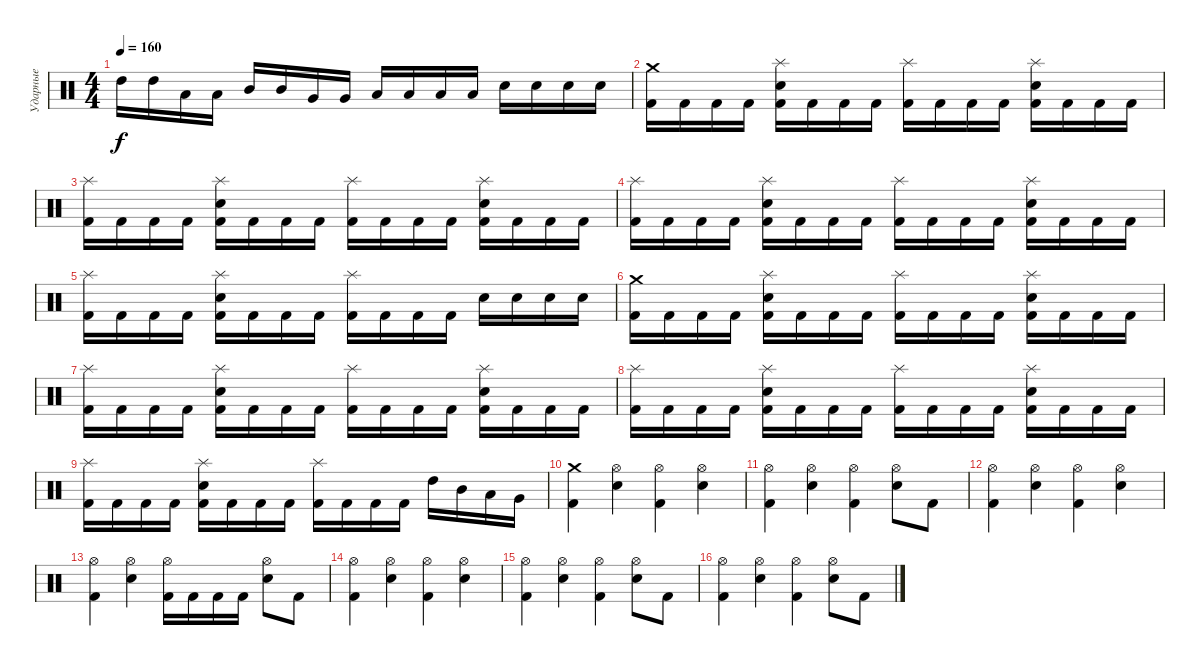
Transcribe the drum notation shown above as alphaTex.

\track ("Ударные" "Ударные") {instrument percussion}
\staff {score}
\articulation defaults
\ts (4 4)
\tempo 160
\clef neutral
\ks c "High Tom (hit)".16{dy f} "High Tom (hit)".16 "Low Tom (hit)".16 "Low Tom (hit)".16 "Mid Tom (hit)".16 "Mid Tom (hit)".16 "Very Low Tom (hit)".16 "Very Low Tom (hit)".16 "Low Tom (hit)".16 "Low Tom (hit)".16 "Low Floor Tom (hit)".16 "Low Floor Tom (hit)".16 "Electric Snare (hit)".16 "Electric Snare (hit)".16 "Electric Snare (hit)".16 "Electric Snare (hit)".16
|
("Crash medium (hit)" "Kick (hit) 2").16 "Kick (hit) 2".16 "Kick (hit) 2".16 "Kick (hit) 2".16 ("Splash (hit)" "Electric Snare (hit)" "Kick (hit) 2").16 "Kick (hit) 2".16 "Kick (hit) 2".16 "Kick (hit) 2".16 ("Splash (hit)" "Kick (hit) 2").16 "Kick (hit) 2".16 "Kick (hit) 2".16 "Kick (hit) 2".16 ("Splash (hit)" "Electric Snare (hit)" "Kick (hit) 2").16 "Kick (hit) 2".16 "Kick (hit) 2".16 "Kick (hit) 2".16 |
("Splash (hit)" "Kick (hit) 2").16 "Kick (hit) 2".16 "Kick (hit) 2".16 "Kick (hit) 2".16 ("Splash (hit)" "Electric Snare (hit)" "Kick (hit) 2").16 "Kick (hit) 2".16 "Kick (hit) 2".16 "Kick (hit) 2".16 ("Splash (hit)" "Kick (hit) 2").16 "Kick (hit) 2".16 "Kick (hit) 2".16 "Kick (hit) 2".16 ("Splash (hit)" "Electric Snare (hit)" "Kick (hit) 2").16 "Kick (hit) 2".16 "Kick (hit) 2".16 "Kick (hit) 2".16 |
("Splash (hit)" "Kick (hit) 2").16 "Kick (hit) 2".16 "Kick (hit) 2".16 "Kick (hit) 2".16 ("Splash (hit)" "Electric Snare (hit)" "Kick (hit) 2").16 "Kick (hit) 2".16 "Kick (hit) 2".16 "Kick (hit) 2".16 ("Splash (hit)" "Kick (hit) 2").16 "Kick (hit) 2".16 "Kick (hit) 2".16 "Kick (hit) 2".16 ("Splash (hit)" "Electric Snare (hit)" "Kick (hit) 2").16 "Kick (hit) 2".16 "Kick (hit) 2".16 "Kick (hit) 2".16 |
("Splash (hit)" "Kick (hit) 2").16 "Kick (hit) 2".16 "Kick (hit) 2".16 "Kick (hit) 2".16 ("Splash (hit)" "Electric Snare (hit)" "Kick (hit) 2").16 "Kick (hit) 2".16 "Kick (hit) 2".16 "Kick (hit) 2".16 ("Splash (hit)" "Kick (hit) 2").16 "Kick (hit) 2".16 "Kick (hit) 2".16 "Kick (hit) 2".16 "Electric Snare (hit)".16 "Electric Snare (hit)".16 "Electric Snare (hit)".16 "Electric Snare (hit)".16 |
("Crash medium (hit)" "Kick (hit) 2").16 "Kick (hit) 2".16 "Kick (hit) 2".16 "Kick (hit) 2".16 ("Splash (hit)" "Electric Snare (hit)" "Kick (hit) 2").16 "Kick (hit) 2".16 "Kick (hit) 2".16 "Kick (hit) 2".16 ("Splash (hit)" "Kick (hit) 2").16 "Kick (hit) 2".16 "Kick (hit) 2".16 "Kick (hit) 2".16 ("Splash (hit)" "Electric Snare (hit)" "Kick (hit) 2").16 "Kick (hit) 2".16 "Kick (hit) 2".16 "Kick (hit) 2".16 |
("Splash (hit)" "Kick (hit) 2").16 "Kick (hit) 2".16 "Kick (hit) 2".16 "Kick (hit) 2".16 ("Splash (hit)" "Electric Snare (hit)" "Kick (hit) 2").16 "Kick (hit) 2".16 "Kick (hit) 2".16 "Kick (hit) 2".16 ("Splash (hit)" "Kick (hit) 2").16 "Kick (hit) 2".16 "Kick (hit) 2".16 "Kick (hit) 2".16 ("Splash (hit)" "Electric Snare (hit)" "Kick (hit) 2").16 "Kick (hit) 2".16 "Kick (hit) 2".16 "Kick (hit) 2".16 |
("Splash (hit)" "Kick (hit) 2").16 "Kick (hit) 2".16 "Kick (hit) 2".16 "Kick (hit) 2".16 ("Splash (hit)" "Electric Snare (hit)" "Kick (hit) 2").16 "Kick (hit) 2".16 "Kick (hit) 2".16 "Kick (hit) 2".16 ("Splash (hit)" "Kick (hit) 2").16 "Kick (hit) 2".16 "Kick (hit) 2".16 "Kick (hit) 2".16 ("Splash (hit)" "Electric Snare (hit)" "Kick (hit) 2").16 "Kick (hit) 2".16 "Kick (hit) 2".16 "Kick (hit) 2".16 |
("Splash (hit)" "Kick (hit) 2").16 "Kick (hit) 2".16 "Kick (hit) 2".16 "Kick (hit) 2".16 ("Splash (hit)" "Electric Snare (hit)" "Kick (hit) 2").16 "Kick (hit) 2".16 "Kick (hit) 2".16 "Kick (hit) 2".16 ("Splash (hit)" "Kick (hit) 2").16 "Kick (hit) 2".16 "Kick (hit) 2".16 "Kick (hit) 2".16 "High Tom (hit)".16 "Mid Tom (hit)".16 "Low Tom (hit)".16 "Very Low Tom (hit)".16 |
("Crash medium (hit)" "Kick (hit) 2").4 ("Hi-Hat (open)" "Electric Snare (hit)").4 ("Hi-Hat (open)" "Kick (hit) 2").4 ("Hi-Hat (open)" "Electric Snare (hit)").4 |
("Hi-Hat (open)" "Kick (hit) 2").4 ("Hi-Hat (open)" "Electric Snare (hit)").4 ("Hi-Hat (open)" "Kick (hit) 2").4 ("Hi-Hat (open)" "Electric Snare (hit)").8 "Kick (hit) 2".8 |
("Hi-Hat (open)" "Kick (hit) 2").4 ("Hi-Hat (open)" "Electric Snare (hit)").4 ("Hi-Hat (open)" "Kick (hit) 2").4 ("Hi-Hat (open)" "Electric Snare (hit)").4 |
("Hi-Hat (open)" "Kick (hit) 2").4 ("Hi-Hat (open)" "Electric Snare (hit)").4 ("Hi-Hat (open)" "Kick (hit) 2").16 "Kick (hit) 2".16 "Kick (hit) 2".16 "Kick (hit) 2".16 ("Hi-Hat (open)" "Electric Snare (hit)").8 "Kick (hit) 2".8 |
("Hi-Hat (open)" "Kick (hit) 2").4 ("Hi-Hat (open)" "Electric Snare (hit)").4 ("Hi-Hat (open)" "Kick (hit) 2").4 ("Hi-Hat (open)" "Electric Snare (hit)").4 |
("Hi-Hat (open)" "Kick (hit) 2").4 ("Hi-Hat (open)" "Electric Snare (hit)").4 ("Hi-Hat (open)" "Kick (hit) 2").4 ("Hi-Hat (open)" "Electric Snare (hit)").8 "Kick (hit) 2".8 |
("Hi-Hat (open)" "Kick (hit) 2").4 ("Hi-Hat (open)" "Electric Snare (hit)").4 ("Hi-Hat (open)" "Kick (hit) 2").4 ("Hi-Hat (open)" "Electric Snare (hit)").8 "Kick (hit) 2".8
